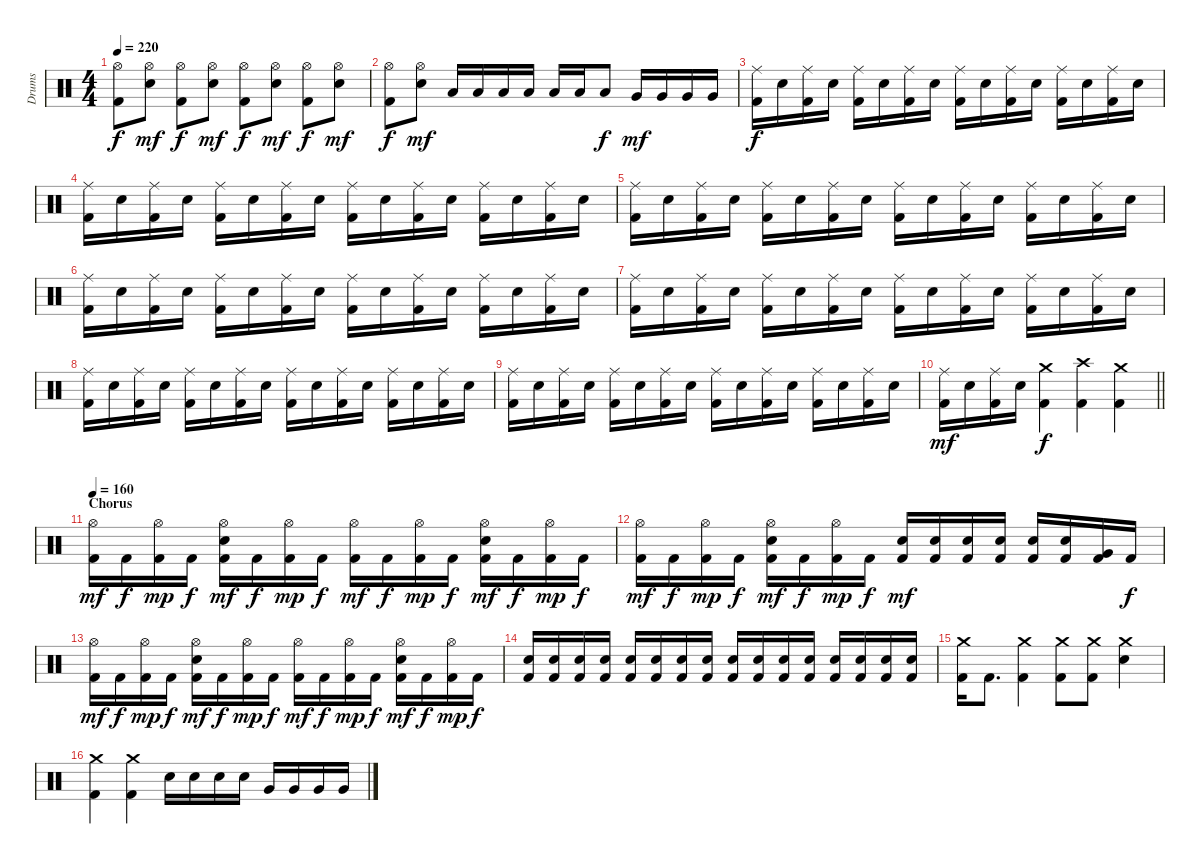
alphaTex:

\track ("Drums" "Drums") {instrument percussion}
\staff {score}
\articulation defaults
\ts (4 4)
\tempo 220
\clef neutral
\ks c
("Hi-Hat (open)" "Kick (hit) 2").8{dy f} ("Hi-Hat (open)" "Snare (hit) 2").8{dy mf} ("Hi-Hat (open)" "Kick (hit) 2").8{dy f} ("Hi-Hat (open)" "Snare (hit) 2").8{dy mf} ("Hi-Hat (open)" "Kick (hit) 2").8{dy f} ("Hi-Hat (open)" "Snare (hit) 2").8{dy mf} ("Hi-Hat (open)" "Kick (hit) 2").8{dy f} ("Hi-Hat (open)" "Snare (hit) 2").8{dy mf} |
("Hi-Hat (open)" "Kick (hit) 2").8{dy f} ("Hi-Hat (open)" "Snare (hit) 2").8{dy mf} "Low Tom (hit)".16 "Low Tom (hit)".16 "Low Tom (hit)".16 "Low Tom (hit)".16 "Low Tom (hit)".16 "Low Tom (hit)".16 "Low Floor Tom (hit)".8{dy f} "Very Low Tom (hit)".16{dy mf} "Very Low Tom (hit)".16 "Very Low Tom (hit)".16 "Very Low Tom (hit)".16 |
("Ride (middle)" "Kick (hit) 2").16{dy f} "Snare (hit) 2".16 ("Ride (middle)" "Kick (hit) 2").16 "Snare (hit) 2".16 ("Ride (middle)" "Kick (hit) 2").16 "Snare (hit) 2".16 ("Ride (middle)" "Kick (hit) 2").16 "Snare (hit) 2".16 ("Ride (middle)" "Kick (hit) 2").16 "Snare (hit) 2".16 ("Ride (middle)" "Kick (hit) 2").16 "Snare (hit) 2".16 ("Ride (middle)" "Kick (hit) 2").16 "Snare (hit) 2".16 ("Ride (middle)" "Kick (hit) 2").16 "Snare (hit) 2".16 |
("Ride (middle)" "Kick (hit) 2").16 "Snare (hit) 2".16 ("Ride (middle)" "Kick (hit) 2").16 "Snare (hit) 2".16 ("Ride (middle)" "Kick (hit) 2").16 "Snare (hit) 2".16 ("Ride (middle)" "Kick (hit) 2").16 "Snare (hit) 2".16 ("Ride (middle)" "Kick (hit) 2").16 "Snare (hit) 2".16 ("Ride (middle)" "Kick (hit) 2").16 "Snare (hit) 2".16 ("Ride (middle)" "Kick (hit) 2").16 "Snare (hit) 2".16 ("Ride (middle)" "Kick (hit) 2").16 "Snare (hit) 2".16 |
("Ride (middle)" "Kick (hit) 2").16 "Snare (hit) 2".16 ("Ride (middle)" "Kick (hit) 2").16 "Snare (hit) 2".16 ("Ride (middle)" "Kick (hit) 2").16 "Snare (hit) 2".16 ("Ride (middle)" "Kick (hit) 2").16 "Snare (hit) 2".16 ("Ride (middle)" "Kick (hit) 2").16 "Snare (hit) 2".16 ("Ride (middle)" "Kick (hit) 2").16 "Snare (hit) 2".16 ("Ride (middle)" "Kick (hit) 2").16 "Snare (hit) 2".16 ("Ride (middle)" "Kick (hit) 2").16 "Snare (hit) 2".16 |
("Ride (middle)" "Kick (hit) 2").16 "Snare (hit) 2".16 ("Ride (middle)" "Kick (hit) 2").16 "Snare (hit) 2".16 ("Ride (middle)" "Kick (hit) 2").16 "Snare (hit) 2".16 ("Ride (middle)" "Kick (hit) 2").16 "Snare (hit) 2".16 ("Ride (middle)" "Kick (hit) 2").16 "Snare (hit) 2".16 ("Ride (middle)" "Kick (hit) 2").16 "Snare (hit) 2".16 ("Ride (middle)" "Kick (hit) 2").16 "Snare (hit) 2".16 ("Ride (middle)" "Kick (hit) 2").16 "Snare (hit) 2".16 |
("Ride (middle)" "Kick (hit) 2").16 "Snare (hit) 2".16 ("Ride (middle)" "Kick (hit) 2").16 "Snare (hit) 2".16 ("Ride (middle)" "Kick (hit) 2").16 "Snare (hit) 2".16 ("Ride (middle)" "Kick (hit) 2").16 "Snare (hit) 2".16 ("Ride (middle)" "Kick (hit) 2").16 "Snare (hit) 2".16 ("Ride (middle)" "Kick (hit) 2").16 "Snare (hit) 2".16 ("Ride (middle)" "Kick (hit) 2").16 "Snare (hit) 2".16 ("Ride (middle)" "Kick (hit) 2").16 "Snare (hit) 2".16 |
("Ride (middle)" "Kick (hit) 2").16 "Snare (hit) 2".16 ("Ride (middle)" "Kick (hit) 2").16 "Snare (hit) 2".16 ("Ride (middle)" "Kick (hit) 2").16 "Snare (hit) 2".16 ("Ride (middle)" "Kick (hit) 2").16 "Snare (hit) 2".16 ("Ride (middle)" "Kick (hit) 2").16 "Snare (hit) 2".16 ("Ride (middle)" "Kick (hit) 2").16 "Snare (hit) 2".16 ("Ride (middle)" "Kick (hit) 2").16 "Snare (hit) 2".16 ("Ride (middle)" "Kick (hit) 2").16 "Snare (hit) 2".16 |
("Ride (middle)" "Kick (hit) 2").16 "Snare (hit) 2".16 ("Ride (middle)" "Kick (hit) 2").16 "Snare (hit) 2".16 ("Ride (middle)" "Kick (hit) 2").16 "Snare (hit) 2".16 ("Ride (middle)" "Kick (hit) 2").16 "Snare (hit) 2".16 ("Ride (middle)" "Kick (hit) 2").16 "Snare (hit) 2".16 ("Ride (middle)" "Kick (hit) 2").16 "Snare (hit) 2".16 ("Ride (middle)" "Kick (hit) 2").16 "Snare (hit) 2".16 ("Ride (middle)" "Kick (hit) 2").16 "Snare (hit) 2".16 |
\barLineRight lightlight
("Ride (middle)" "Kick (hit) 2").16{dy mf} "Snare (hit) 2".16 ("Ride (middle)" "Kick (hit) 2").16 "Snare (hit) 2".16 ("Crash medium (hit)" "Kick (hit) 2").4{dy f} ("Crash high (hit)" "Kick (hit) 2").4 ("Crash medium (hit)" "Kick (hit) 2").4 |
\section ("" "Chorus")
\tempo 160
("Hi-Hat (open)" "Kick (hit) 2").16{dy mf} "Kick (hit) 2".16{dy f} ("Hi-Hat (open)" "Kick (hit) 2").16{dy mp} "Kick (hit) 2".16{dy f} ("Hi-Hat (open)" "Snare (hit) 2" "Kick (hit) 2").16{dy mf} "Kick (hit) 2".16{dy f} ("Hi-Hat (open)" "Kick (hit) 2").16{dy mp} "Kick (hit) 2".16{dy f} ("Hi-Hat (open)" "Kick (hit) 2").16{dy mf} "Kick (hit) 2".16{dy f} ("Hi-Hat (open)" "Kick (hit) 2").16{dy mp} "Kick (hit) 2".16{dy f} ("Hi-Hat (open)" "Snare (hit) 2" "Kick (hit) 2").16{dy mf} "Kick (hit) 2".16{dy f} ("Hi-Hat (open)" "Kick (hit) 2").16{dy mp} "Kick (hit) 2".16{dy f} |
("Hi-Hat (open)" "Kick (hit) 2").16{dy mf} "Kick (hit) 2".16{dy f} ("Hi-Hat (open)" "Kick (hit) 2").16{dy mp} "Kick (hit) 2".16{dy f} ("Hi-Hat (open)" "Snare (hit) 2" "Kick (hit) 2").16{dy mf} "Kick (hit) 2".16{dy f} ("Hi-Hat (open)" "Kick (hit) 2").16{dy mp} "Kick (hit) 2".16{dy f} ("Snare (hit) 2" "Kick (hit) 2").16{dy mf} ("Snare (hit) 2" "Kick (hit) 2").16 ("Snare (hit) 2" "Kick (hit) 2").16 ("Snare (hit) 2" "Kick (hit) 2").16 ("Snare (hit) 2" "Kick (hit) 2").16 ("Snare (hit) 2" "Kick (hit) 2").16 ("Very Low Tom (hit)" "Kick (hit) 2").16 "Kick (hit) 2".16{dy f} |
("Hi-Hat (open)" "Kick (hit) 2").16{dy mf} "Kick (hit) 2".16{dy f} ("Hi-Hat (open)" "Kick (hit) 2").16{dy mp} "Kick (hit) 2".16{dy f} ("Hi-Hat (open)" "Snare (hit) 2" "Kick (hit) 2").16{dy mf} "Kick (hit) 2".16{dy f} ("Hi-Hat (open)" "Kick (hit) 2").16{dy mp} "Kick (hit) 2".16{dy f} ("Hi-Hat (open)" "Kick (hit) 2").16{dy mf} "Kick (hit) 2".16{dy f} ("Hi-Hat (open)" "Kick (hit) 2").16{dy mp} "Kick (hit) 2".16{dy f} ("Hi-Hat (open)" "Snare (hit) 2" "Kick (hit) 2").16{dy mf} "Kick (hit) 2".16{dy f} ("Hi-Hat (open)" "Kick (hit) 2").16{dy mp} "Kick (hit) 2".16{dy f} |
("Snare (hit) 2" "Kick (hit) 2").16 ("Snare (hit) 2" "Kick (hit) 2").16 ("Snare (hit) 2" "Kick (hit) 2").16 ("Snare (hit) 2" "Kick (hit) 2").16 ("Snare (hit) 2" "Kick (hit) 2").16 ("Snare (hit) 2" "Kick (hit) 2").16 ("Snare (hit) 2" "Kick (hit) 2").16 ("Snare (hit) 2" "Kick (hit) 2").16 ("Snare (hit) 2" "Kick (hit) 2").16 ("Snare (hit) 2" "Kick (hit) 2").16 ("Snare (hit) 2" "Kick (hit) 2").16 ("Snare (hit) 2" "Kick (hit) 2").16 ("Snare (hit) 2" "Kick (hit) 2").16 ("Snare (hit) 2" "Kick (hit) 2").16 ("Snare (hit) 2" "Kick (hit) 2").16 ("Snare (hit) 2" "Kick (hit) 2").16 |
("Crash medium (hit)" "Kick (hit) 2").16 "Kick (hit) 2".8{d} ("Crash medium (hit)" "Kick (hit) 2").4 ("Crash medium (hit)" "Kick (hit) 2").8 ("Crash medium (hit)" "Kick (hit) 2").8 ("Crash medium (hit)" "Snare (hit) 2").4 |
("Crash medium (hit)" "Kick (hit) 2").4 ("Crash medium (hit)" "Kick (hit) 2").4 "Snare (hit) 2".16 "Snare (hit) 2".16 "Snare (hit) 2".16 "Snare (hit) 2".16 "Very Low Tom (hit)".16 "Very Low Tom (hit)".16 "Very Low Tom (hit)".16 "Very Low Tom (hit)".16
